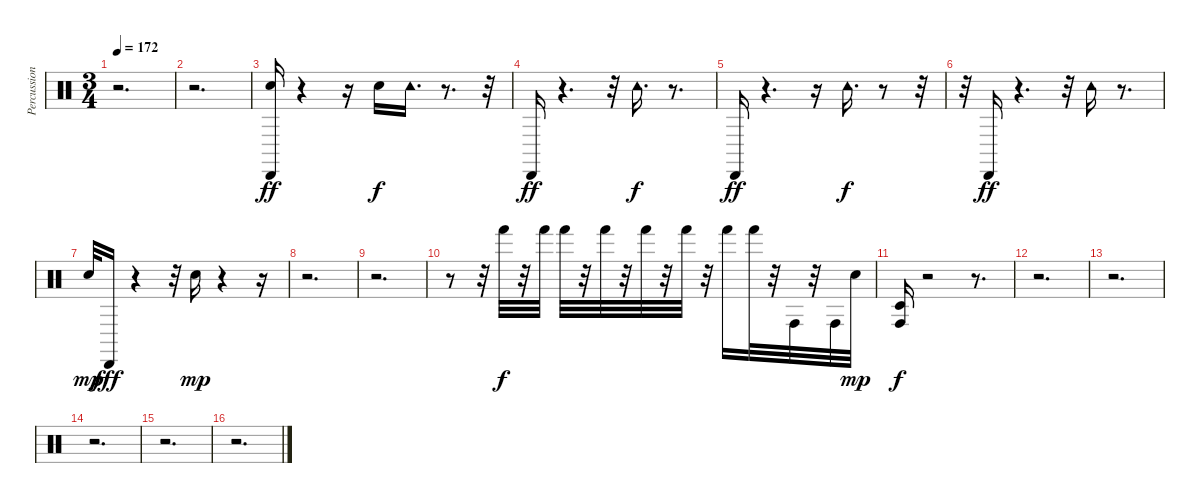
\track ("Percussion" "Percussion") {instrument percussion}
\staff {score}
\articulation defaults
\ts (3 4)
\tempo 172
\clef neutral
\ks c
r.2{d dy mp} |
r.2{d} |
("Hand Clap (hit)" "Cabasa (hit)").16{dy ff} r.4 r.16 "Hand Clap (hit)".16{dy f} "Tambourine (hit)".16{d} r.8{d} r.32 |
"Cabasa (hit)".16{dy ff} r.4{d} r.32 "Tambourine (hit)".16{d dy f} r.8{d} |
"Cabasa (hit)".16{dy ff} r.4{d} r.16 "Tambourine (hit)".16{d dy f} r.8 r.32 |
r.32 "Cabasa (hit)".16{dy ff} r.4{d} r.32 "Tambourine (hit)".16 r.8{d} |
"Hand Clap (hit)".32{dy mp} "Cabasa (hit)".16{dy fff} r.4 r.32 "Hand Clap (hit)".16{dy mp} r.4 r.16 |
r.2{d} |
r.2{d} |
r.8 r.32 "Hand (hit)".32{dy f} r.32 "Hand (hit)".32 "Hand (hit)".32 r.32 "Hand (hit)".32 r.32 "Hand (hit)".32 r.32 "Hand (hit)".32 r.32 "Hand (hit)".16 "Hand (hit)".32 r.32 "Conga high (hit)".32 r.32 "Conga high (hit)".32 "Hand Clap (hit)".32{dy mp} |
("Conga high (hit)" "Timbale low (hit)").16{dy f} r.2 r.8{d} |
r.2{d} |
r.2{d} |
r.2{d} |
r.2{d} |
r.2{d}
